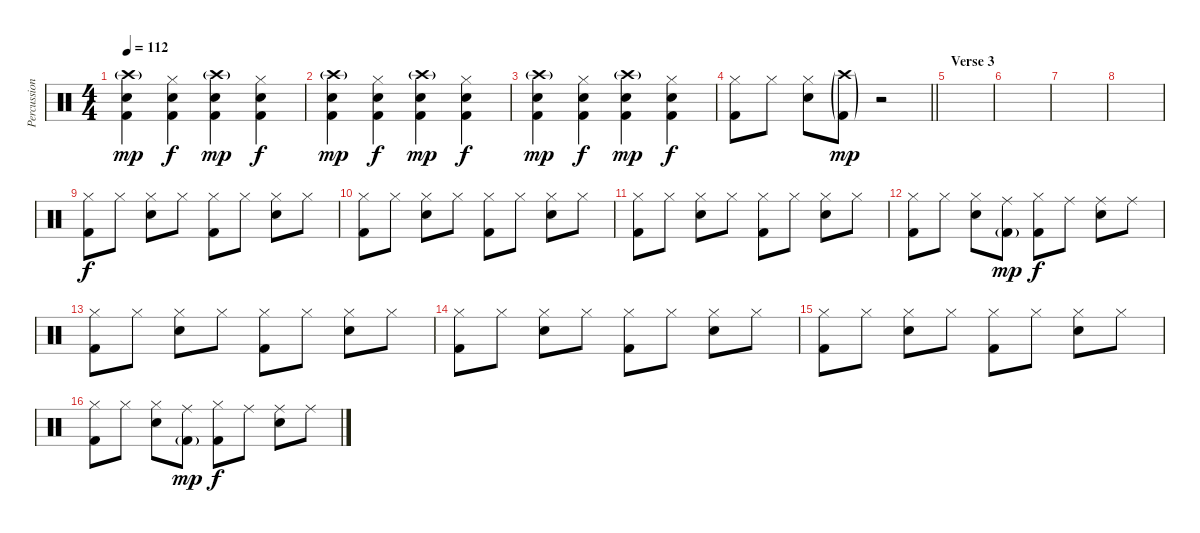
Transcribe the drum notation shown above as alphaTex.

\track ("Percussion" "Percussion") {instrument percussion}
\staff {score}
\articulation defaults
\ts (4 4)
\tempo 112
\clef neutral
\ks c
("Crash high (hit)"{g} "Snare (hit) 2" "Kick (hit) 2").4{dy mp} ("Hi-Hat (closed)" "Snare (hit) 2" "Kick (hit) 2").4{dy f} ("Crash high (hit)"{g} "Snare (hit) 2" "Kick (hit) 2").4{dy mp} ("Hi-Hat (closed)" "Snare (hit) 2" "Kick (hit) 2").4{dy f} |
("Crash high (hit)"{g} "Snare (hit) 2" "Kick (hit) 2").4{dy mp} ("Hi-Hat (closed)" "Snare (hit) 2" "Kick (hit) 2").4{dy f} ("Crash high (hit)"{g} "Snare (hit) 2" "Kick (hit) 2").4{dy mp} ("Hi-Hat (closed)" "Snare (hit) 2" "Kick (hit) 2").4{dy f} |
("Crash high (hit)"{g} "Snare (hit) 2" "Kick (hit) 2").4{dy mp} ("Hi-Hat (closed)" "Snare (hit) 2" "Kick (hit) 2").4{dy f} ("Crash high (hit)"{g} "Snare (hit) 2" "Kick (hit) 2").4{dy mp} ("Hi-Hat (closed)" "Snare (hit) 2" "Kick (hit) 2").4{dy f} |
\barLineRight lightlight
("Hi-Hat (closed)" "Kick (hit) 2").8 "Hi-Hat (closed)".8 ("Hi-Hat (closed)" "Snare (hit) 2").8 ("Crash high (hit)"{g} "Kick (hit) 2"{g}).8{dy mp} r.2 |
\section ("" "Verse 3")
|
|
|
|
("Hi-Hat (closed)" "Kick (hit) 2").8{dy f} "Hi-Hat (closed)".8 ("Hi-Hat (closed)" "Snare (hit) 2").8 "Hi-Hat (closed)".8 ("Hi-Hat (closed)" "Kick (hit) 2").8 "Hi-Hat (closed)".8 ("Hi-Hat (closed)" "Snare (hit) 2").8 "Hi-Hat (closed)".8 |
("Hi-Hat (closed)" "Kick (hit) 2").8 "Hi-Hat (closed)".8 ("Hi-Hat (closed)" "Snare (hit) 2").8 "Hi-Hat (closed)".8 ("Hi-Hat (closed)" "Kick (hit) 2").8 "Hi-Hat (closed)".8 ("Hi-Hat (closed)" "Snare (hit) 2").8 "Hi-Hat (closed)".8 |
("Hi-Hat (closed)" "Kick (hit) 2").8 "Hi-Hat (closed)".8 ("Hi-Hat (closed)" "Snare (hit) 2").8 "Hi-Hat (closed)".8 ("Hi-Hat (closed)" "Kick (hit) 2").8 "Hi-Hat (closed)".8 ("Hi-Hat (closed)" "Snare (hit) 2").8 "Hi-Hat (closed)".8 |
("Hi-Hat (closed)" "Kick (hit) 2").8 "Hi-Hat (closed)".8 ("Hi-Hat (closed)" "Snare (hit) 2").8 ("Ride (middle)" "Kick (hit) 2"{g}).8{dy mp} ("Hi-Hat (closed)" "Kick (hit) 2").8{dy f} "Ride (middle)".8 ("Ride (middle)" "Snare (hit) 2").8 "Ride (middle)".8 |
("Hi-Hat (closed)" "Kick (hit) 2").8 "Hi-Hat (closed)".8 ("Hi-Hat (closed)" "Snare (hit) 2").8 "Hi-Hat (closed)".8 ("Hi-Hat (closed)" "Kick (hit) 2").8 "Hi-Hat (closed)".8 ("Hi-Hat (closed)" "Snare (hit) 2").8 "Hi-Hat (closed)".8 |
("Hi-Hat (closed)" "Kick (hit) 2").8 "Hi-Hat (closed)".8 ("Hi-Hat (closed)" "Snare (hit) 2").8 "Hi-Hat (closed)".8 ("Hi-Hat (closed)" "Kick (hit) 2").8 "Hi-Hat (closed)".8 ("Hi-Hat (closed)" "Snare (hit) 2").8 "Hi-Hat (closed)".8 |
("Hi-Hat (closed)" "Kick (hit) 2").8 "Hi-Hat (closed)".8 ("Hi-Hat (closed)" "Snare (hit) 2").8 "Hi-Hat (closed)".8 ("Hi-Hat (closed)" "Kick (hit) 2").8 "Hi-Hat (closed)".8 ("Hi-Hat (closed)" "Snare (hit) 2").8 "Hi-Hat (closed)".8 |
("Hi-Hat (closed)" "Kick (hit) 2").8 "Hi-Hat (closed)".8 ("Hi-Hat (closed)" "Snare (hit) 2").8 ("Ride (middle)" "Kick (hit) 2"{g}).8{dy mp} ("Hi-Hat (closed)" "Kick (hit) 2").8{dy f} "Ride (middle)".8 ("Ride (middle)" "Snare (hit) 2").8 "Ride (middle)".8
